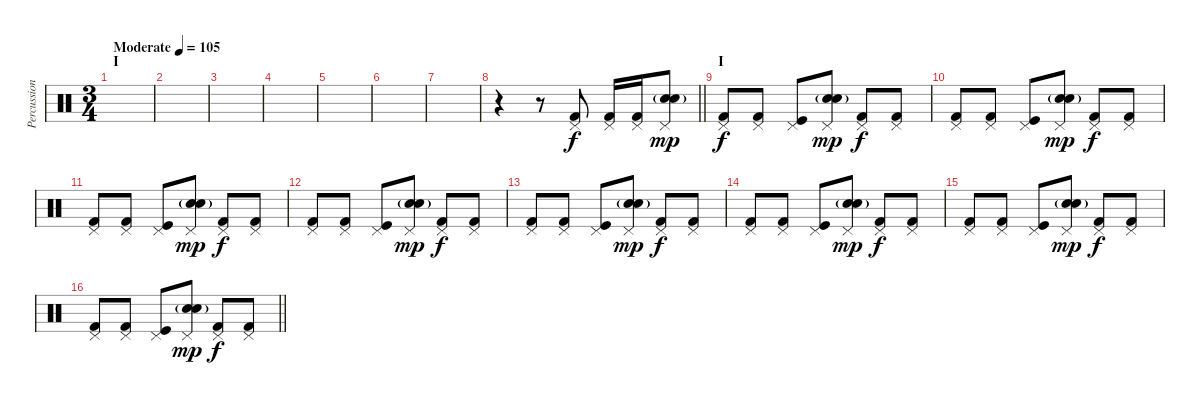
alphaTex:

\track ("Percussion" "Percussion") {instrument percussion}
\staff {score}
\articulation defaults
\ts (3 4)
\section ("" "I")
\tempo (105 "Moderate")
\clef neutral
\ks c
|
|
|
|
|
|
|
\barLineRight lightlight
r.4 r.8 ("Kick (hit) 2" "Pedal Hi-Hat (hit)").8 ("Kick (hit) 2" "Pedal Hi-Hat (hit)").16 ("Kick (hit) 2" "Pedal Hi-Hat (hit)").16 ("Electric Snare (hit)" "Snare (hit) 2"{g} "Pedal Hi-Hat (hit)").8{dy mp} |
\section ("" "I")
("Kick (hit) 2" "Pedal Hi-Hat (hit)").8{dy f} ("Kick (hit) 2" "Pedal Hi-Hat (hit)").8 ("Kick (hit)" "Pedal Hi-Hat (hit)").8 ("Electric Snare (hit)" "Snare (hit) 2"{g} "Pedal Hi-Hat (hit)").8{dy mp} ("Kick (hit) 2" "Pedal Hi-Hat (hit)").8{dy f} ("Kick (hit) 2" "Pedal Hi-Hat (hit)").8 |
("Kick (hit) 2" "Pedal Hi-Hat (hit)").8 ("Kick (hit) 2" "Pedal Hi-Hat (hit)").8 ("Kick (hit)" "Pedal Hi-Hat (hit)").8 ("Electric Snare (hit)" "Snare (hit) 2"{g} "Pedal Hi-Hat (hit)").8{dy mp} ("Kick (hit) 2" "Pedal Hi-Hat (hit)").8{dy f} ("Kick (hit) 2" "Pedal Hi-Hat (hit)").8 |
("Kick (hit) 2" "Pedal Hi-Hat (hit)").8 ("Kick (hit) 2" "Pedal Hi-Hat (hit)").8 ("Kick (hit)" "Pedal Hi-Hat (hit)").8 ("Electric Snare (hit)" "Snare (hit) 2"{g} "Pedal Hi-Hat (hit)").8{dy mp} ("Kick (hit) 2" "Pedal Hi-Hat (hit)").8{dy f} ("Kick (hit) 2" "Pedal Hi-Hat (hit)").8 |
("Kick (hit) 2" "Pedal Hi-Hat (hit)").8 ("Kick (hit) 2" "Pedal Hi-Hat (hit)").8 ("Kick (hit)" "Pedal Hi-Hat (hit)").8 ("Electric Snare (hit)" "Snare (hit) 2"{g} "Pedal Hi-Hat (hit)").8{dy mp} ("Kick (hit) 2" "Pedal Hi-Hat (hit)").8{dy f} ("Kick (hit) 2" "Pedal Hi-Hat (hit)").8 |
("Kick (hit) 2" "Pedal Hi-Hat (hit)").8 ("Kick (hit) 2" "Pedal Hi-Hat (hit)").8 ("Kick (hit)" "Pedal Hi-Hat (hit)").8 ("Electric Snare (hit)" "Snare (hit) 2"{g} "Pedal Hi-Hat (hit)").8{dy mp} ("Kick (hit) 2" "Pedal Hi-Hat (hit)").8{dy f} ("Kick (hit) 2" "Pedal Hi-Hat (hit)").8 |
("Kick (hit) 2" "Pedal Hi-Hat (hit)").8 ("Kick (hit) 2" "Pedal Hi-Hat (hit)").8 ("Kick (hit)" "Pedal Hi-Hat (hit)").8 ("Electric Snare (hit)" "Snare (hit) 2"{g} "Pedal Hi-Hat (hit)").8{dy mp} ("Kick (hit) 2" "Pedal Hi-Hat (hit)").8{dy f} ("Kick (hit) 2" "Pedal Hi-Hat (hit)").8 |
("Kick (hit) 2" "Pedal Hi-Hat (hit)").8 ("Kick (hit) 2" "Pedal Hi-Hat (hit)").8 ("Kick (hit)" "Pedal Hi-Hat (hit)").8 ("Electric Snare (hit)" "Snare (hit) 2"{g} "Pedal Hi-Hat (hit)").8{dy mp} ("Kick (hit) 2" "Pedal Hi-Hat (hit)").8{dy f} ("Kick (hit) 2" "Pedal Hi-Hat (hit)").8 |
\barLineRight lightlight
("Kick (hit) 2" "Pedal Hi-Hat (hit)").8 ("Kick (hit) 2" "Pedal Hi-Hat (hit)").8 ("Kick (hit)" "Pedal Hi-Hat (hit)").8 ("Electric Snare (hit)" "Snare (hit) 2"{g} "Pedal Hi-Hat (hit)").8{dy mp} ("Kick (hit) 2" "Pedal Hi-Hat (hit)").8{dy f} ("Kick (hit) 2" "Pedal Hi-Hat (hit)").8
